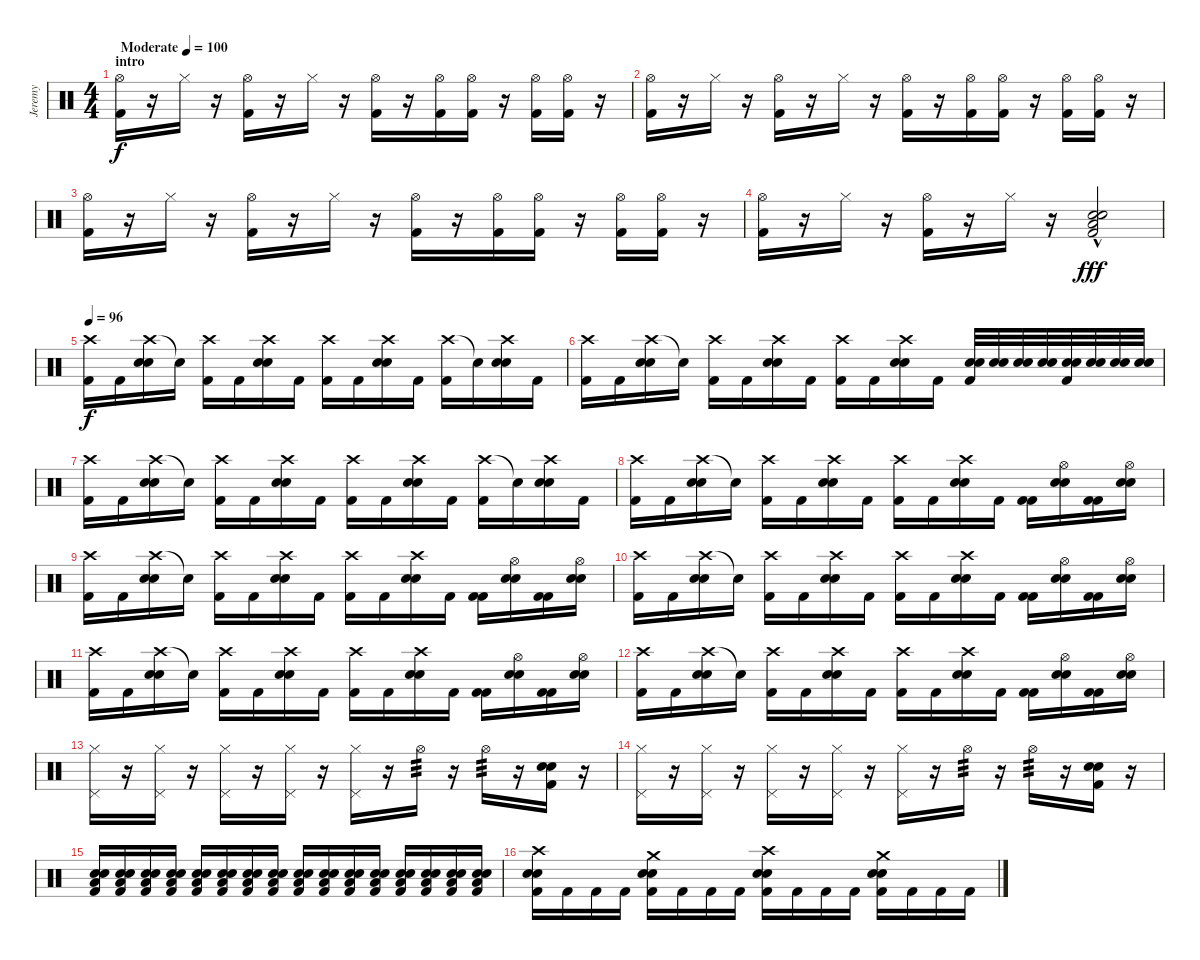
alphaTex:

\track ("Jeremy" "Jeremy") {instrument percussion}
\staff {score}
\articulation defaults
\ts (4 4)
\section ("" "intro")
\tempo (100 "Moderate")
\clef neutral
\ks c
("Hi-Hat (open)" "Kick (hit) 2").16{dy f} r.16 "Hi-Hat (closed)".16 r.16 ("Hi-Hat (open)" "Kick (hit) 2").16 r.16 "Hi-Hat (closed)".16 r.16 ("Hi-Hat (open)" "Kick (hit) 2").16 r.16 ("Hi-Hat (open)" "Kick (hit) 2").16 ("Hi-Hat (open)" "Kick (hit) 2").16 r.16 ("Hi-Hat (open)" "Kick (hit) 2").16 ("Hi-Hat (open)" "Kick (hit) 2").16 r.16 |
("Hi-Hat (open)" "Kick (hit) 2").16 r.16 "Hi-Hat (closed)".16 r.16 ("Hi-Hat (open)" "Kick (hit) 2").16 r.16 "Hi-Hat (closed)".16 r.16 ("Hi-Hat (open)" "Kick (hit) 2").16 r.16 ("Hi-Hat (open)" "Kick (hit) 2").16 ("Hi-Hat (open)" "Kick (hit) 2").16 r.16 ("Hi-Hat (open)" "Kick (hit) 2").16 ("Hi-Hat (open)" "Kick (hit) 2").16 r.16 |
("Hi-Hat (open)" "Kick (hit) 2").16 r.16 "Hi-Hat (closed)".16 r.16 ("Hi-Hat (open)" "Kick (hit) 2").16 r.16 "Hi-Hat (closed)".16 r.16 ("Hi-Hat (open)" "Kick (hit) 2").16 r.16 ("Hi-Hat (open)" "Kick (hit) 2").16 ("Hi-Hat (open)" "Kick (hit) 2").16 r.16 ("Hi-Hat (open)" "Kick (hit) 2").16 ("Hi-Hat (open)" "Kick (hit) 2").16 r.16 |
("Hi-Hat (open)" "Kick (hit) 2").16 r.16 "Hi-Hat (closed)".16 r.16 ("Hi-Hat (open)" "Kick (hit) 2").16 r.16 "Hi-Hat (closed)".16 r.16 ("Snare (hit) 2"{hac} "Electric Snare (hit)"{hac} "Low Floor Tom (hit)"{hac} "Kick (hit) 2"{hac}).2{dy fff} |
\tempo 96
("Crash high (hit)" "Kick (hit) 2").16{dy f} "Kick (hit) 2".16 ("Crash high (hit)" "Electric Snare (hit)" "Snare (hit) 2").16 "Snare (hit)"{t}.16 ("Crash high (hit)" "Kick (hit) 2").16 "Kick (hit) 2".16 ("Crash high (hit)" "Electric Snare (hit)" "Snare (hit) 2").16 "Kick (hit) 2".16 ("Crash high (hit)" "Kick (hit) 2").16 "Kick (hit) 2".16 ("Crash high (hit)" "Electric Snare (hit)" "Snare (hit) 2").16 "Kick (hit) 2".16 ("Crash high (hit)" "Kick (hit) 2").16 "Snare (hit)"{t}.16 ("Crash high (hit)" "Electric Snare (hit)" "Snare (hit) 2").16 "Kick (hit) 2".16 |
("Crash high (hit)" "Kick (hit) 2").16 "Kick (hit) 2".16 ("Crash high (hit)" "Electric Snare (hit)" "Snare (hit) 2").16 "Snare (hit)"{t}.16 ("Crash high (hit)" "Kick (hit) 2").16 "Kick (hit) 2".16 ("Crash high (hit)" "Electric Snare (hit)" "Snare (hit) 2").16 "Kick (hit) 2".16 ("Crash high (hit)" "Kick (hit) 2").16 "Kick (hit) 2".16 ("Crash high (hit)" "Electric Snare (hit)" "Snare (hit) 2").16 "Kick (hit) 2".16 ("Electric Snare (hit)" "Snare (hit) 2" "Kick (hit) 2").32 ("Electric Snare (hit)" "Snare (hit) 2").32 ("Electric Snare (hit)" "Snare (hit) 2").32 ("Electric Snare (hit)" "Snare (hit) 2").32 ("Electric Snare (hit)" "Snare (hit) 2" "Kick (hit) 2").32 ("Electric Snare (hit)" "Snare (hit) 2").32 ("Electric Snare (hit)" "Snare (hit) 2").32 ("Electric Snare (hit)" "Snare (hit) 2").32 |
("Crash high (hit)" "Kick (hit) 2").16 "Kick (hit) 2".16 ("Crash high (hit)" "Electric Snare (hit)" "Snare (hit) 2").16 "Snare (hit)"{t}.16 ("Crash high (hit)" "Kick (hit) 2").16 "Kick (hit) 2".16 ("Crash high (hit)" "Electric Snare (hit)" "Snare (hit) 2").16 "Kick (hit) 2".16 ("Crash high (hit)" "Kick (hit) 2").16 "Kick (hit) 2".16 ("Crash high (hit)" "Electric Snare (hit)" "Snare (hit) 2").16 "Kick (hit) 2".16 ("Crash high (hit)" "Kick (hit) 2").16 "Snare (hit)"{t}.16 ("Crash high (hit)" "Electric Snare (hit)" "Snare (hit) 2").16 "Kick (hit) 2".16 |
("Crash high (hit)" "Kick (hit) 2").16 "Kick (hit) 2".16 ("Crash high (hit)" "Electric Snare (hit)" "Snare (hit) 2").16 "Snare (hit)"{t}.16 ("Crash high (hit)" "Kick (hit) 2").16 "Kick (hit) 2".16 ("Crash high (hit)" "Electric Snare (hit)" "Snare (hit) 2").16 "Kick (hit) 2".16 ("Crash high (hit)" "Kick (hit) 2").16 "Kick (hit) 2".16 ("Crash high (hit)" "Electric Snare (hit)" "Snare (hit) 2").16 "Kick (hit) 2".16 ("Kick (hit) 2" "Kick (hit) 2").16 ("Hi-Hat (open)" "Electric Snare (hit)" "Snare (hit) 2").16 ("Kick (hit) 2" "Kick (hit) 2").16 ("Hi-Hat (open)" "Electric Snare (hit)" "Snare (hit) 2").16 |
("Crash high (hit)" "Kick (hit) 2").16 "Kick (hit) 2".16 ("Crash high (hit)" "Electric Snare (hit)" "Snare (hit) 2").16 "Snare (hit)"{t}.16 ("Crash high (hit)" "Kick (hit) 2").16 "Kick (hit) 2".16 ("Crash high (hit)" "Electric Snare (hit)" "Snare (hit) 2").16 "Kick (hit) 2".16 ("Crash high (hit)" "Kick (hit) 2").16 "Kick (hit) 2".16 ("Crash high (hit)" "Electric Snare (hit)" "Snare (hit) 2").16 "Kick (hit) 2".16 ("Kick (hit) 2" "Kick (hit) 2").16 ("Hi-Hat (open)" "Electric Snare (hit)" "Snare (hit) 2").16 ("Kick (hit) 2" "Kick (hit) 2").16 ("Hi-Hat (open)" "Electric Snare (hit)" "Snare (hit) 2").16 |
("Crash high (hit)" "Kick (hit) 2").16 "Kick (hit) 2".16 ("Crash high (hit)" "Electric Snare (hit)" "Snare (hit) 2").16 "Snare (hit)"{t}.16 ("Crash high (hit)" "Kick (hit) 2").16 "Kick (hit) 2".16 ("Crash high (hit)" "Electric Snare (hit)" "Snare (hit) 2").16 "Kick (hit) 2".16 ("Crash high (hit)" "Kick (hit) 2").16 "Kick (hit) 2".16 ("Crash high (hit)" "Electric Snare (hit)" "Snare (hit) 2").16 "Kick (hit) 2".16 ("Kick (hit) 2" "Kick (hit) 2").16 ("Hi-Hat (open)" "Electric Snare (hit)" "Snare (hit) 2").16 ("Kick (hit) 2" "Kick (hit) 2").16 ("Hi-Hat (open)" "Electric Snare (hit)" "Snare (hit) 2").16 |
("Crash high (hit)" "Kick (hit) 2").16 "Kick (hit) 2".16 ("Crash high (hit)" "Electric Snare (hit)" "Snare (hit) 2").16 "Snare (hit)"{t}.16 ("Crash high (hit)" "Kick (hit) 2").16 "Kick (hit) 2".16 ("Crash high (hit)" "Electric Snare (hit)" "Snare (hit) 2").16 "Kick (hit) 2".16 ("Crash high (hit)" "Kick (hit) 2").16 "Kick (hit) 2".16 ("Crash high (hit)" "Electric Snare (hit)" "Snare (hit) 2").16 "Kick (hit) 2".16 ("Kick (hit) 2" "Kick (hit) 2").16 ("Hi-Hat (open)" "Electric Snare (hit)" "Snare (hit) 2").16 ("Kick (hit) 2" "Kick (hit) 2").16 ("Hi-Hat (open)" "Electric Snare (hit)" "Snare (hit) 2").16 |
("Crash high (hit)" "Kick (hit) 2").16 "Kick (hit) 2".16 ("Crash high (hit)" "Electric Snare (hit)" "Snare (hit) 2").16 "Snare (hit)"{t}.16 ("Crash high (hit)" "Kick (hit) 2").16 "Kick (hit) 2".16 ("Crash high (hit)" "Electric Snare (hit)" "Snare (hit) 2").16 "Kick (hit) 2".16 ("Crash high (hit)" "Kick (hit) 2").16 "Kick (hit) 2".16 ("Crash high (hit)" "Electric Snare (hit)" "Snare (hit) 2").16 "Kick (hit) 2".16 ("Kick (hit) 2" "Kick (hit) 2").16 ("Hi-Hat (open)" "Electric Snare (hit)" "Snare (hit) 2").16 ("Kick (hit) 2" "Kick (hit) 2").16 ("Hi-Hat (open)" "Electric Snare (hit)" "Snare (hit) 2").16 |
("Hi-Hat (closed)" "Pedal Hi-Hat (hit)").16 r.16 ("Hi-Hat (closed)" "Pedal Hi-Hat (hit)").16 r.16 ("Hi-Hat (closed)" "Pedal Hi-Hat (hit)").16 r.16 ("Hi-Hat (closed)" "Pedal Hi-Hat (hit)").16 r.16 ("Hi-Hat (closed)" "Pedal Hi-Hat (hit)").16 r.16 "Hi-Hat (open)".16{tp 3} r.16 "Hi-Hat (open)".16{tp 3} r.16 ("Electric Snare (hit)" "Snare (hit) 2" "Kick (hit) 2").16 r.16 |
("Hi-Hat (closed)" "Pedal Hi-Hat (hit)").16 r.16 ("Hi-Hat (closed)" "Pedal Hi-Hat (hit)").16 r.16 ("Hi-Hat (closed)" "Pedal Hi-Hat (hit)").16 r.16 ("Hi-Hat (closed)" "Pedal Hi-Hat (hit)").16 r.16 ("Hi-Hat (closed)" "Pedal Hi-Hat (hit)").16 r.16 "Hi-Hat (open)".16{tp 3} r.16 "Hi-Hat (open)".16{tp 3} r.16 ("Electric Snare (hit)" "Snare (hit) 2" "Kick (hit) 2").16 r.16 |
("Snare (hit) 2" "Electric Snare (hit)" "Low Floor Tom (hit)" "Kick (hit) 2").16{volume 7} ("Snare (hit) 2" "Electric Snare (hit)" "Low Floor Tom (hit)" "Kick (hit) 2").16{volume 15} ("Snare (hit) 2" "Electric Snare (hit)" "Low Floor Tom (hit)" "Kick (hit) 2").16 ("Snare (hit) 2" "Electric Snare (hit)" "Low Floor Tom (hit)" "Kick (hit) 2").16 ("Snare (hit) 2" "Electric Snare (hit)" "Low Floor Tom (hit)" "Kick (hit) 2").16 ("Snare (hit) 2" "Electric Snare (hit)" "Low Floor Tom (hit)" "Kick (hit) 2").16 ("Snare (hit) 2" "Electric Snare (hit)" "Low Floor Tom (hit)" "Kick (hit) 2").16 ("Snare (hit) 2" "Electric Snare (hit)" "Low Floor Tom (hit)" "Kick (hit) 2").16 ("Snare (hit) 2" "Electric Snare (hit)" "Low Floor Tom (hit)" "Kick (hit) 2").16 ("Snare (hit) 2" "Electric Snare (hit)" "Low Floor Tom (hit)" "Kick (hit) 2").16 ("Snare (hit) 2" "Electric Snare (hit)" "Low Floor Tom (hit)" "Kick (hit) 2").16 ("Snare (hit) 2" "Electric Snare (hit)" "Low Floor Tom (hit)" "Kick (hit) 2").16 ("Snare (hit) 2" "Electric Snare (hit)" "Low Floor Tom (hit)" "Kick (hit) 2").16 ("Snare (hit) 2" "Electric Snare (hit)" "Low Floor Tom (hit)" "Kick (hit) 2").16 ("Snare (hit) 2" "Electric Snare (hit)" "Low Floor Tom (hit)" "Kick (hit) 2").16 ("Snare (hit) 2" "Electric Snare (hit)" "Low Floor Tom (hit)" "Kick (hit) 2").16 |
("Crash high (hit)" "Electric Snare (hit)" "Snare (hit) 2" "Kick (hit) 2").16 "Kick (hit) 2".16 "Kick (hit) 2".16 "Kick (hit) 2".16 ("Crash medium (hit)" "Electric Snare (hit)" "Snare (hit) 2" "Kick (hit) 2").16 "Kick (hit) 2".16 "Kick (hit) 2".16 "Kick (hit) 2".16 ("Crash high (hit)" "Electric Snare (hit)" "Snare (hit) 2" "Kick (hit) 2").16 "Kick (hit) 2".16 "Kick (hit) 2".16 "Kick (hit) 2".16 ("Crash medium (hit)" "Electric Snare (hit)" "Snare (hit) 2" "Kick (hit) 2").16 "Kick (hit) 2".16 "Kick (hit) 2".16 "Kick (hit) 2".16
